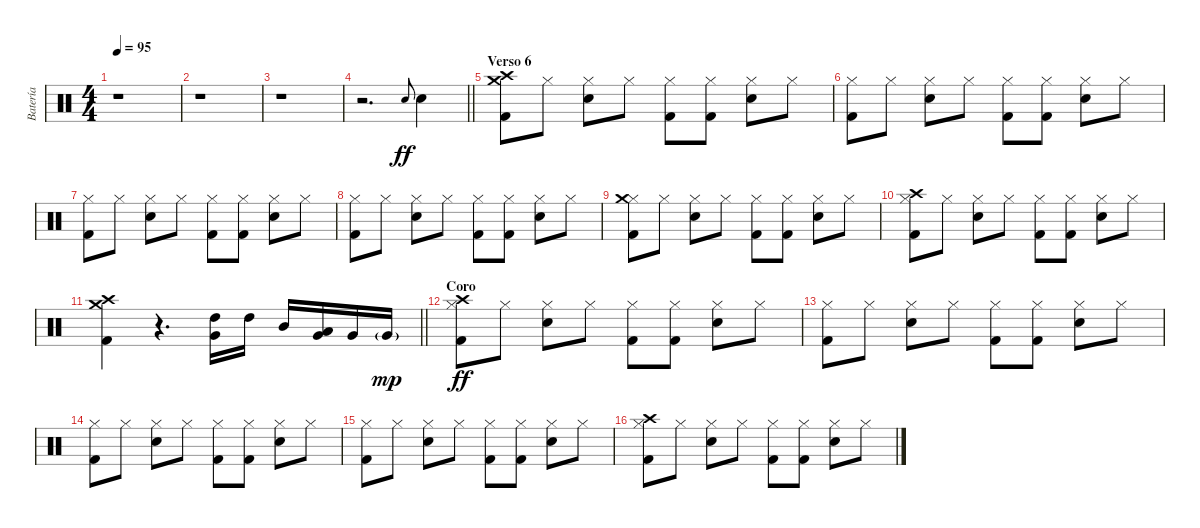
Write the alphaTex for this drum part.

\track ("Batería" "Batería") {instrument percussion}
\staff {score}
\articulation defaults
\ts (4 4)
\tempo 95
\clef neutral
\ks c
r.1{dy ff} |
r.1 |
r.1 |
\barLineRight lightlight
r.2{d} "Electric Snare (hit)"{h}.8{gr onbeat} "Electric Snare (hit)".4 |
\section ("" "Verso 6")
("Crash medium (hit)" "Crash high (hit)" "Kick (hit) 2").8 "Hi-Hat (closed)".8 ("Hi-Hat (closed)" "Electric Snare (hit)").8 "Hi-Hat (closed)".8 ("Hi-Hat (closed)" "Kick (hit) 2").8 ("Hi-Hat (closed)" "Kick (hit) 2").8 ("Hi-Hat (closed)" "Electric Snare (hit)").8 "Hi-Hat (closed)".8 |
("Hi-Hat (closed)" "Kick (hit) 2").8 "Hi-Hat (closed)".8 ("Hi-Hat (closed)" "Electric Snare (hit)").8 "Hi-Hat (closed)".8 ("Hi-Hat (closed)" "Kick (hit) 2").8 ("Hi-Hat (closed)" "Kick (hit) 2").8 ("Hi-Hat (closed)" "Electric Snare (hit)").8 "Hi-Hat (closed)".8 |
("Hi-Hat (closed)" "Kick (hit) 2").8 "Hi-Hat (closed)".8 ("Hi-Hat (closed)" "Electric Snare (hit)").8 "Hi-Hat (closed)".8 ("Hi-Hat (closed)" "Kick (hit) 2").8 ("Hi-Hat (closed)" "Kick (hit) 2").8 ("Hi-Hat (closed)" "Electric Snare (hit)").8 "Hi-Hat (closed)".8 |
("Hi-Hat (closed)" "Kick (hit) 2").8 "Hi-Hat (closed)".8 ("Hi-Hat (closed)" "Electric Snare (hit)").8 "Hi-Hat (closed)".8 ("Hi-Hat (closed)" "Kick (hit) 2").8 ("Hi-Hat (closed)" "Kick (hit) 2").8 ("Hi-Hat (closed)" "Electric Snare (hit)").8 "Hi-Hat (closed)".8 |
("Hi-Hat (closed)" "Crash medium (hit)" "Kick (hit) 2").8 "Hi-Hat (closed)".8 ("Hi-Hat (closed)" "Electric Snare (hit)").8 "Hi-Hat (closed)".8 ("Hi-Hat (closed)" "Kick (hit) 2").8 ("Hi-Hat (closed)" "Kick (hit) 2").8 ("Hi-Hat (closed)" "Electric Snare (hit)").8 "Hi-Hat (closed)".8 |
("Hi-Hat (closed)" "Crash high (hit)" "Kick (hit) 2").8 "Hi-Hat (closed)".8 ("Hi-Hat (closed)" "Electric Snare (hit)").8 "Hi-Hat (closed)".8 ("Hi-Hat (closed)" "Kick (hit) 2").8 ("Hi-Hat (closed)" "Kick (hit) 2").8 ("Hi-Hat (closed)" "Electric Snare (hit)").8 "Hi-Hat (closed)".8 |
\barLineRight lightlight
("Crash high (hit)" "Crash medium (hit)" "Kick (hit) 2").4 r.4{d} ("High Tom (hit)" "Very Low Tom (hit)").16 "High Tom (hit)".16 "Mid Tom (hit)".16 ("Low Tom (hit)" "Very Low Tom (hit)").16 "Very Low Tom (hit)".16 "Very Low Tom (hit)"{g}.16{dy mp} |
\section ("" "Coro")
("Hi-Hat (closed)" "Crash high (hit)" "Kick (hit) 2").8{dy ff} "Hi-Hat (closed)".8 ("Hi-Hat (closed)" "Electric Snare (hit)").8 "Hi-Hat (closed)".8 ("Hi-Hat (closed)" "Kick (hit) 2").8 ("Hi-Hat (closed)" "Kick (hit) 2").8 ("Hi-Hat (closed)" "Electric Snare (hit)").8 "Hi-Hat (closed)".8 |
("Hi-Hat (closed)" "Kick (hit) 2").8 "Hi-Hat (closed)".8 ("Hi-Hat (closed)" "Electric Snare (hit)").8 "Hi-Hat (closed)".8 ("Hi-Hat (closed)" "Kick (hit) 2").8 ("Hi-Hat (closed)" "Kick (hit) 2").8 ("Hi-Hat (closed)" "Electric Snare (hit)").8 "Hi-Hat (closed)".8 |
("Hi-Hat (closed)" "Kick (hit) 2").8 "Hi-Hat (closed)".8 ("Hi-Hat (closed)" "Electric Snare (hit)").8 "Hi-Hat (closed)".8 ("Hi-Hat (closed)" "Kick (hit) 2").8 ("Hi-Hat (closed)" "Kick (hit) 2").8 ("Hi-Hat (closed)" "Electric Snare (hit)").8 "Hi-Hat (closed)".8 |
("Hi-Hat (closed)" "Kick (hit) 2").8 "Hi-Hat (closed)".8 ("Hi-Hat (closed)" "Electric Snare (hit)").8 "Hi-Hat (closed)".8 ("Hi-Hat (closed)" "Kick (hit) 2").8 ("Hi-Hat (closed)" "Kick (hit) 2").8 ("Hi-Hat (closed)" "Electric Snare (hit)").8 "Hi-Hat (closed)".8 |
("Hi-Hat (closed)" "Crash high (hit)" "Kick (hit) 2").8 "Hi-Hat (closed)".8 ("Hi-Hat (closed)" "Electric Snare (hit)").8 "Hi-Hat (closed)".8 ("Hi-Hat (closed)" "Kick (hit) 2").8 ("Hi-Hat (closed)" "Kick (hit) 2").8 ("Hi-Hat (closed)" "Electric Snare (hit)").8 "Hi-Hat (closed)".8
